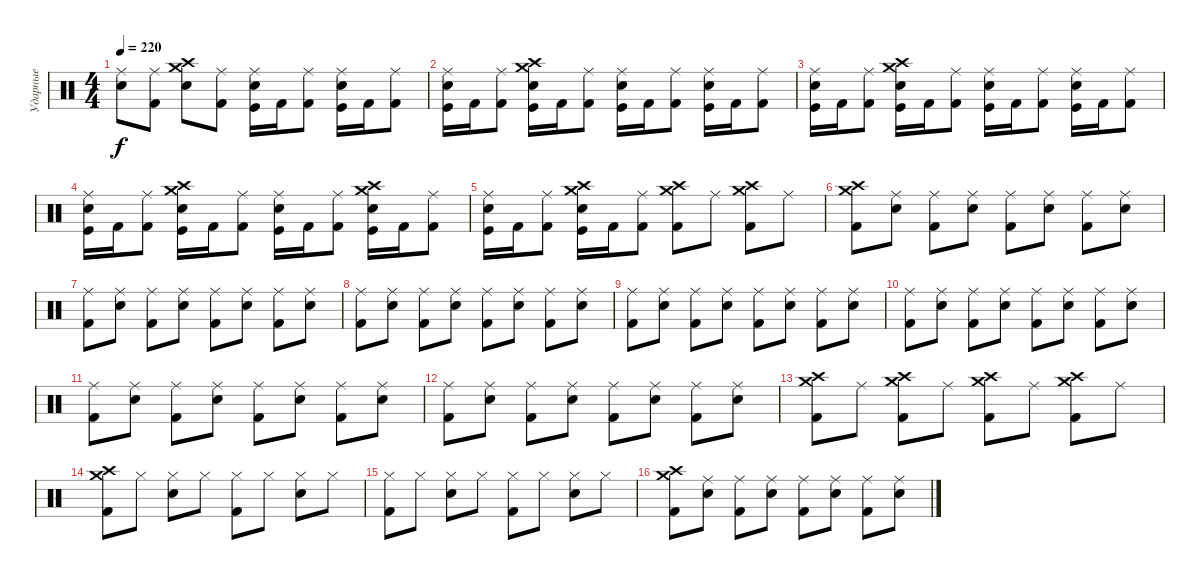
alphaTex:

\track ("Ударные" "Ударные") {instrument percussion}
\staff {score}
\articulation defaults
\ts (4 4)
\tempo 220
\clef neutral
\ks c
("Ride (middle)" "Snare (hit) 2").8{dy f} ("Ride (middle)" "Kick (hit) 2").8 ("Crash high (hit)" "Crash medium (hit)" "Snare (hit) 2").8 ("Ride (middle)" "Kick (hit) 2").8 ("Ride (middle)" "Snare (hit) 2" "Kick (hit)").16 "Kick (hit) 2".16 ("Ride (middle)" "Kick (hit) 2").8 ("Ride (middle)" "Snare (hit) 2" "Kick (hit)").16 "Kick (hit) 2".16 ("Ride (middle)" "Kick (hit) 2").8 |
("Ride (middle)" "Snare (hit) 2" "Kick (hit)").16 "Kick (hit) 2".16 ("Ride (middle)" "Kick (hit) 2").8 ("Crash high (hit)" "Crash medium (hit)" "Snare (hit) 2" "Kick (hit)").16 "Kick (hit) 2".16 ("Ride (middle)" "Kick (hit) 2").8 ("Ride (middle)" "Snare (hit) 2" "Kick (hit)").16 "Kick (hit) 2".16 ("Ride (middle)" "Kick (hit) 2").8 ("Ride (middle)" "Snare (hit) 2" "Kick (hit)").16 "Kick (hit) 2".16 ("Ride (middle)" "Kick (hit) 2").8 |
("Ride (middle)" "Snare (hit) 2" "Kick (hit)").16 "Kick (hit) 2".16 ("Ride (middle)" "Kick (hit) 2").8 ("Crash high (hit)" "Crash medium (hit)" "Snare (hit) 2" "Kick (hit)").16 "Kick (hit) 2".16 ("Ride (middle)" "Kick (hit) 2").8 ("Ride (middle)" "Snare (hit) 2" "Kick (hit)").16 "Kick (hit) 2".16 ("Ride (middle)" "Kick (hit) 2").8 ("Ride (middle)" "Snare (hit) 2" "Kick (hit)").16 "Kick (hit) 2".16 ("Ride (middle)" "Kick (hit) 2").8 |
("Ride (middle)" "Snare (hit) 2" "Kick (hit)").16 "Kick (hit) 2".16 ("Ride (middle)" "Kick (hit) 2").8 ("Crash high (hit)" "Crash medium (hit)" "Snare (hit) 2" "Kick (hit)").16 "Kick (hit) 2".16 ("Ride (middle)" "Kick (hit) 2").8 ("Ride (middle)" "Snare (hit) 2" "Kick (hit)").16 "Kick (hit) 2".16 ("Ride (middle)" "Kick (hit) 2").8 ("Crash high (hit)" "Snare (hit) 2" "Crash medium (hit)" "Kick (hit)").16 "Kick (hit) 2".16 ("Ride (middle)" "Kick (hit) 2").8 |
("Ride (middle)" "Snare (hit) 2" "Kick (hit)").16 "Kick (hit) 2".16 ("Ride (middle)" "Kick (hit) 2").8 ("Crash high (hit)" "Crash medium (hit)" "Snare (hit) 2" "Kick (hit)").16 "Kick (hit) 2".16 ("Ride (middle)" "Kick (hit) 2").8 ("Crash high (hit)" "Crash medium (hit)" "Kick (hit) 2").8 "Ride (middle)".8 ("Crash high (hit)" "Crash medium (hit)" "Kick (hit) 2").8 "Ride (middle)".8 |
("Crash high (hit)" "Crash medium (hit)" "Kick (hit) 2").8 ("Ride (middle)" "Snare (hit) 2").8 ("Ride (middle)" "Kick (hit) 2").8 ("Ride (middle)" "Snare (hit) 2").8 ("Ride (middle)" "Kick (hit) 2").8 ("Ride (middle)" "Snare (hit) 2").8 ("Ride (middle)" "Kick (hit) 2").8 ("Ride (middle)" "Snare (hit) 2").8 |
("Ride (middle)" "Kick (hit) 2").8 ("Ride (middle)" "Snare (hit) 2").8 ("Ride (middle)" "Kick (hit) 2").8 ("Ride (middle)" "Snare (hit) 2").8 ("Ride (middle)" "Kick (hit) 2").8 ("Ride (middle)" "Snare (hit) 2").8 ("Ride (middle)" "Kick (hit) 2").8 ("Ride (middle)" "Snare (hit) 2").8 |
("Ride (middle)" "Kick (hit) 2").8 ("Ride (middle)" "Snare (hit) 2").8 ("Ride (middle)" "Kick (hit) 2").8 ("Ride (middle)" "Snare (hit) 2").8 ("Ride (middle)" "Kick (hit) 2").8 ("Ride (middle)" "Snare (hit) 2").8 ("Ride (middle)" "Kick (hit) 2").8 ("Ride (middle)" "Snare (hit) 2").8 |
("Ride (middle)" "Kick (hit) 2").8 ("Ride (middle)" "Snare (hit) 2").8 ("Ride (middle)" "Kick (hit) 2").8 ("Ride (middle)" "Snare (hit) 2").8 ("Ride (middle)" "Kick (hit) 2").8 ("Ride (middle)" "Snare (hit) 2").8 ("Ride (middle)" "Kick (hit) 2").8 ("Ride (middle)" "Snare (hit) 2").8 |
("Ride (middle)" "Kick (hit) 2").8 ("Ride (middle)" "Snare (hit) 2").8 ("Ride (middle)" "Kick (hit) 2").8 ("Ride (middle)" "Snare (hit) 2").8 ("Ride (middle)" "Kick (hit) 2").8 ("Ride (middle)" "Snare (hit) 2").8 ("Ride (middle)" "Kick (hit) 2").8 ("Ride (middle)" "Snare (hit) 2").8 |
("Ride (middle)" "Kick (hit) 2").8 ("Ride (middle)" "Snare (hit) 2").8 ("Ride (middle)" "Kick (hit) 2").8 ("Ride (middle)" "Snare (hit) 2").8 ("Ride (middle)" "Kick (hit) 2").8 ("Ride (middle)" "Snare (hit) 2").8 ("Ride (middle)" "Kick (hit) 2").8 ("Ride (middle)" "Snare (hit) 2").8 |
("Ride (middle)" "Kick (hit) 2").8 ("Ride (middle)" "Snare (hit) 2").8 ("Ride (middle)" "Kick (hit) 2").8 ("Ride (middle)" "Snare (hit) 2").8 ("Ride (middle)" "Kick (hit) 2").8 ("Ride (middle)" "Snare (hit) 2").8 ("Ride (middle)" "Kick (hit) 2").8 ("Ride (middle)" "Snare (hit) 2").8 |
("Crash high (hit)" "Crash medium (hit)" "Kick (hit) 2").8 "Ride (middle)".8 ("Crash high (hit)" "Crash medium (hit)" "Kick (hit) 2").8 "Ride (middle)".8 ("Crash high (hit)" "Crash medium (hit)" "Kick (hit) 2").8 "Ride (middle)".8 ("Crash high (hit)" "Crash medium (hit)" "Kick (hit) 2").8 "Ride (middle)".8 |
("Crash high (hit)" "Crash medium (hit)" "Kick (hit) 2").8 "Hi-Hat (closed)".8 ("Hi-Hat (closed)" "Snare (hit) 2").8 "Hi-Hat (closed)".8 ("Hi-Hat (closed)" "Kick (hit) 2").8 "Hi-Hat (closed)".8 ("Hi-Hat (closed)" "Snare (hit) 2").8 "Hi-Hat (closed)".8 |
("Hi-Hat (closed)" "Kick (hit) 2").8 "Hi-Hat (closed)".8 ("Hi-Hat (closed)" "Snare (hit) 2").8 "Hi-Hat (closed)".8 ("Hi-Hat (closed)" "Kick (hit) 2").8 "Hi-Hat (closed)".8 ("Hi-Hat (closed)" "Snare (hit) 2").8 "Hi-Hat (closed)".8 |
("Crash high (hit)" "Crash medium (hit)" "Kick (hit) 2").8 ("Ride (middle)" "Snare (hit) 2").8 ("Ride (middle)" "Kick (hit) 2").8 ("Ride (middle)" "Snare (hit) 2").8 ("Ride (middle)" "Kick (hit) 2").8 ("Ride (middle)" "Snare (hit) 2").8 ("Ride (middle)" "Kick (hit) 2").8 ("Ride (middle)" "Snare (hit) 2").8
